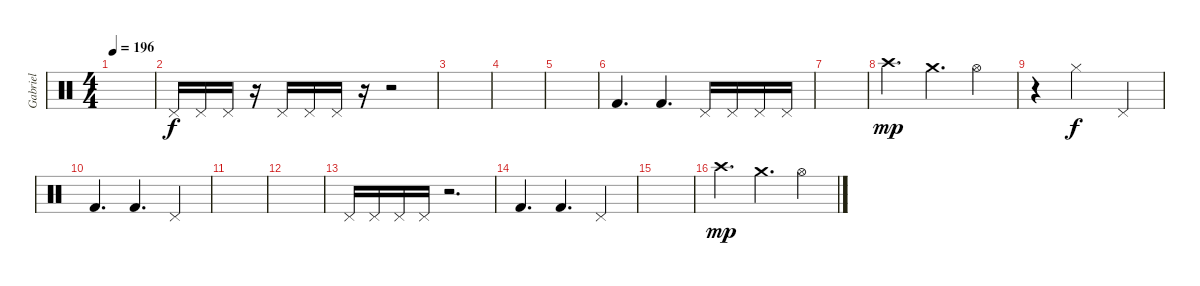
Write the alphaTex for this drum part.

\track ("Gabriel" "Gabriel") {instrument percussion}
\staff {score}
\articulation defaults
\ts (4 4)
\tempo 196
\clef neutral
\ks aminor
|
"Pedal Hi-Hat (hit)".16 "Pedal Hi-Hat (hit)".16 "Pedal Hi-Hat (hit)".16 r.16 "Pedal Hi-Hat (hit)".16 "Pedal Hi-Hat (hit)".16 "Pedal Hi-Hat (hit)".16 r.16 r.2 |
|
|
|
"Kick (hit) 2".4{d} "Kick (hit) 2".4{d} "Pedal Hi-Hat (hit)".16 "Pedal Hi-Hat (hit)".16 "Pedal Hi-Hat (hit)".16 "Pedal Hi-Hat (hit)".16 |
|
"Crash high (hit)".4{d dy mp} "Crash medium (hit)".4{d} "Hi-Hat (open)".4 |
r.4 "Hi-Hat (closed)".2{dy f} "Pedal Hi-Hat (hit)".4 |
"Kick (hit) 2".4{d} "Kick (hit) 2".4{d} "Pedal Hi-Hat (hit)".4 |
|
|
"Pedal Hi-Hat (hit)".16 "Pedal Hi-Hat (hit)".16 "Pedal Hi-Hat (hit)".16 "Pedal Hi-Hat (hit)".16 r.2{d} |
"Kick (hit) 2".4{d} "Kick (hit) 2".4{d} "Pedal Hi-Hat (hit)".4 |
|
"Crash high (hit)".4{d dy mp} "Crash medium (hit)".4{d} "Hi-Hat (open)".4
